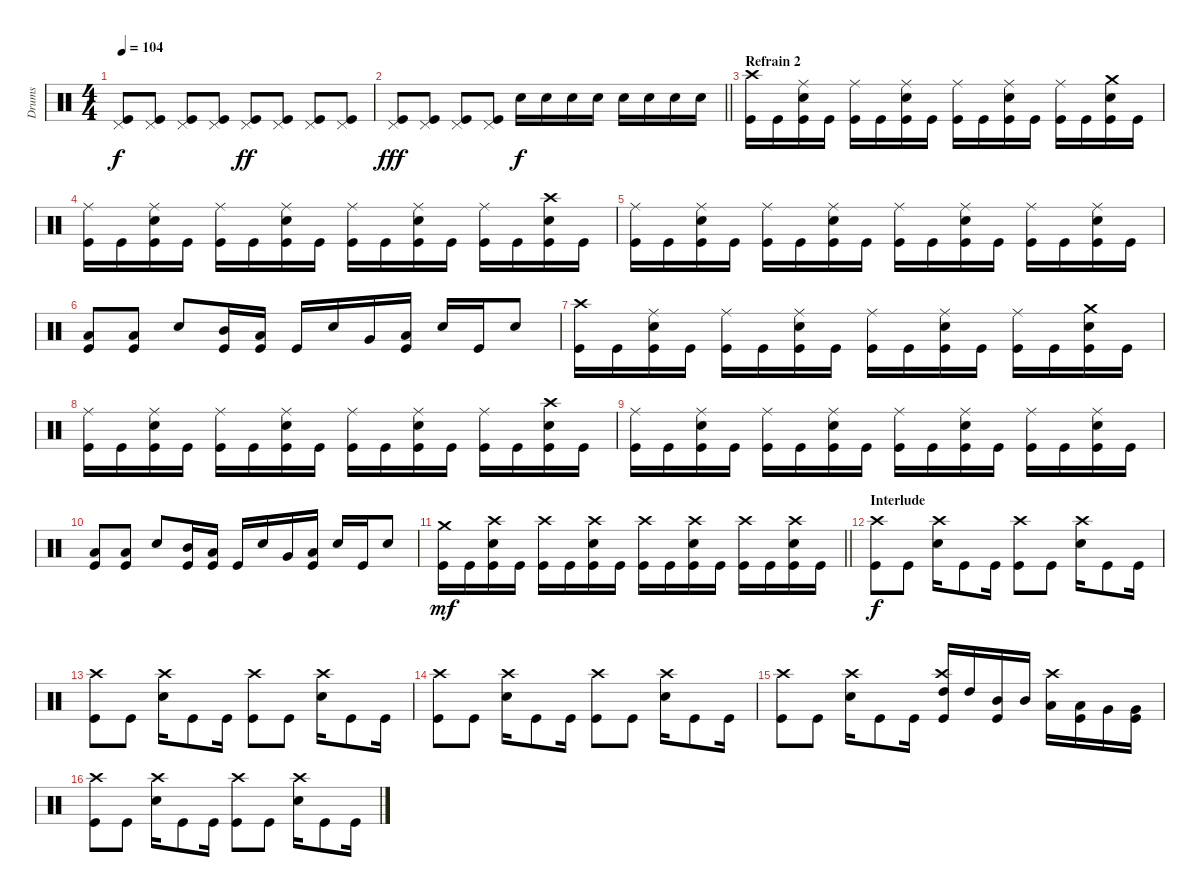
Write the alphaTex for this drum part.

\track ("Drums" "Drums") {instrument percussion}
\staff {score}
\articulation defaults
\ts (4 4)
\tempo 104
\clef neutral
\ks c
("Pedal Hi-Hat (hit)" "Kick (hit)").8{dy f} ("Pedal Hi-Hat (hit)" "Kick (hit)").8 ("Pedal Hi-Hat (hit)" "Kick (hit)").8 ("Pedal Hi-Hat (hit)" "Kick (hit)").8 ("Pedal Hi-Hat (hit)" "Kick (hit)").8{dy ff} ("Pedal Hi-Hat (hit)" "Kick (hit)").8 ("Pedal Hi-Hat (hit)" "Kick (hit)").8 ("Pedal Hi-Hat (hit)" "Kick (hit)").8 |
\barLineRight lightlight
("Pedal Hi-Hat (hit)" "Kick (hit)").8{dy fff} ("Pedal Hi-Hat (hit)" "Kick (hit)").8 ("Pedal Hi-Hat (hit)" "Kick (hit)").8 ("Pedal Hi-Hat (hit)" "Kick (hit)").8 "Electric Snare (hit)".16{dy f} "Electric Snare (hit)".16 "Electric Snare (hit)".16 "Electric Snare (hit)".16 "Electric Snare (hit)".16 "Electric Snare (hit)".16 "Electric Snare (hit)".16 "Electric Snare (hit)".16 |
\section ("" "Refrain 2")
("Crash high (hit)" "Kick (hit)").16 "Kick (hit)".16 ("Ride (middle)" "Electric Snare (hit)" "Kick (hit)").16 "Kick (hit)".16 ("Ride (middle)" "Kick (hit)").16 "Kick (hit)".16 ("Ride (middle)" "Electric Snare (hit)" "Kick (hit)").16 "Kick (hit)".16 ("Ride (middle)" "Kick (hit)").16 "Kick (hit)".16 ("Ride (middle)" "Electric Snare (hit)" "Kick (hit)").16 "Kick (hit)".16 ("Ride (middle)" "Kick (hit)").16 "Kick (hit)".16 ("Crash medium (hit)" "Electric Snare (hit)" "Kick (hit)").16 "Kick (hit)".16 |
("Ride (middle)" "Kick (hit)").16 "Kick (hit)".16 ("Ride (middle)" "Electric Snare (hit)" "Kick (hit)").16 "Kick (hit)".16 ("Ride (middle)" "Kick (hit)").16 "Kick (hit)".16 ("Ride (middle)" "Electric Snare (hit)" "Kick (hit)").16 "Kick (hit)".16 ("Ride (middle)" "Kick (hit)").16 "Kick (hit)".16 ("Ride (middle)" "Electric Snare (hit)" "Kick (hit)").16 "Kick (hit)".16 ("Ride (middle)" "Kick (hit)").16 "Kick (hit)".16 ("Crash high (hit)" "Electric Snare (hit)" "Kick (hit)").16 "Kick (hit)".16 |
("Ride (middle)" "Kick (hit)").16 "Kick (hit)".16 ("Ride (middle)" "Electric Snare (hit)" "Kick (hit)").16 "Kick (hit)".16 ("Ride (middle)" "Kick (hit)").16 "Kick (hit)".16 ("Ride (middle)" "Electric Snare (hit)" "Kick (hit)").16 "Kick (hit)".16 ("Ride (middle)" "Kick (hit)").16 "Kick (hit)".16 ("Ride (middle)" "Electric Snare (hit)" "Kick (hit)").16 "Kick (hit)".16 ("Ride (middle)" "Kick (hit)").16 "Kick (hit)".16 ("Ride (middle)" "Electric Snare (hit)" "Kick (hit)").16 "Kick (hit)".16 |
("Low Tom (hit)" "Kick (hit)").8 ("Low Tom (hit)" "Kick (hit)").8 "Electric Snare (hit)".8 ("Mid Tom (hit)" "Kick (hit)").16 ("Low Tom (hit)" "Kick (hit)").16 "Kick (hit)".16 "Electric Snare (hit)".16 "Very Low Tom (hit)".16 ("Low Floor Tom (hit)" "Kick (hit)").16 "Electric Snare (hit)".16 "Kick (hit)".16 "Electric Snare (hit)".8 |
("Crash high (hit)" "Kick (hit)").16 "Kick (hit)".16 ("Ride (middle)" "Electric Snare (hit)" "Kick (hit)").16 "Kick (hit)".16 ("Ride (middle)" "Kick (hit)").16 "Kick (hit)".16 ("Ride (middle)" "Electric Snare (hit)" "Kick (hit)").16 "Kick (hit)".16 ("Ride (middle)" "Kick (hit)").16 "Kick (hit)".16 ("Ride (middle)" "Electric Snare (hit)" "Kick (hit)").16 "Kick (hit)".16 ("Ride (middle)" "Kick (hit)").16 "Kick (hit)".16 ("Crash medium (hit)" "Electric Snare (hit)" "Kick (hit)").16 "Kick (hit)".16 |
("Ride (middle)" "Kick (hit)").16 "Kick (hit)".16 ("Ride (middle)" "Electric Snare (hit)" "Kick (hit)").16 "Kick (hit)".16 ("Ride (middle)" "Kick (hit)").16 "Kick (hit)".16 ("Ride (middle)" "Electric Snare (hit)" "Kick (hit)").16 "Kick (hit)".16 ("Ride (middle)" "Kick (hit)").16 "Kick (hit)".16 ("Ride (middle)" "Electric Snare (hit)" "Kick (hit)").16 "Kick (hit)".16 ("Ride (middle)" "Kick (hit)").16 "Kick (hit)".16 ("Crash high (hit)" "Electric Snare (hit)" "Kick (hit)").16 "Kick (hit)".16 |
("Ride (middle)" "Kick (hit)").16 "Kick (hit)".16 ("Ride (middle)" "Electric Snare (hit)" "Kick (hit)").16 "Kick (hit)".16 ("Ride (middle)" "Kick (hit)").16 "Kick (hit)".16 ("Ride (middle)" "Electric Snare (hit)" "Kick (hit)").16 "Kick (hit)".16 ("Ride (middle)" "Kick (hit)").16 "Kick (hit)".16 ("Ride (middle)" "Electric Snare (hit)" "Kick (hit)").16 "Kick (hit)".16 ("Ride (middle)" "Kick (hit)").16 "Kick (hit)".16 ("Ride (middle)" "Electric Snare (hit)" "Kick (hit)").16 "Kick (hit)".16 |
("Low Tom (hit)" "Kick (hit)").8 ("Low Tom (hit)" "Kick (hit)").8 "Electric Snare (hit)".8 ("Mid Tom (hit)" "Kick (hit)").16 ("Low Tom (hit)" "Kick (hit)").16 "Kick (hit)".16 "Electric Snare (hit)".16 "Very Low Tom (hit)".16 ("Low Floor Tom (hit)" "Kick (hit)").16 "Electric Snare (hit)".16 "Kick (hit)".16 "Electric Snare (hit)".8 |
\barLineRight lightlight
("Crash medium (hit)" "Kick (hit)").16{dy mf} "Kick (hit)".16 ("Crash high (hit)" "Electric Snare (hit)" "Kick (hit)").16 "Kick (hit)".16 ("Crash high (hit)" "Kick (hit)").16 "Kick (hit)".16 ("Crash high (hit)" "Electric Snare (hit)" "Kick (hit)").16 "Kick (hit)".16 ("Crash high (hit)" "Kick (hit)").16 "Kick (hit)".16 ("Crash high (hit)" "Electric Snare (hit)" "Kick (hit)").16 "Kick (hit)".16 ("Crash high (hit)" "Kick (hit)").16 "Kick (hit)".16 ("Crash high (hit)" "Electric Snare (hit)" "Kick (hit)").16 "Kick (hit)".16 |
\section ("" "Interlude")
("Crash high (hit)" "Kick (hit)").8{dy f} "Kick (hit)".8 ("Crash high (hit)" "Electric Snare (hit)").16 "Kick (hit)".8 "Kick (hit)".16 ("Crash high (hit)" "Kick (hit)").8 "Kick (hit)".8 ("Crash high (hit)" "Electric Snare (hit)").16 "Kick (hit)".8 "Kick (hit)".16 |
("Crash high (hit)" "Kick (hit)").8 "Kick (hit)".8 ("Crash high (hit)" "Electric Snare (hit)").16 "Kick (hit)".8 "Kick (hit)".16 ("Crash high (hit)" "Kick (hit)").8 "Kick (hit)".8 ("Crash high (hit)" "Electric Snare (hit)").16 "Kick (hit)".8 "Kick (hit)".16 |
("Crash high (hit)" "Kick (hit)").8 "Kick (hit)".8 ("Crash high (hit)" "Electric Snare (hit)").16 "Kick (hit)".8 "Kick (hit)".16 ("Crash high (hit)" "Kick (hit)").8 "Kick (hit)".8 ("Crash high (hit)" "Electric Snare (hit)").16 "Kick (hit)".8 "Kick (hit)".16 |
("Crash high (hit)" "Kick (hit)").8 "Kick (hit)".8 ("Crash high (hit)" "Electric Snare (hit)").16 "Kick (hit)".8 "Kick (hit)".16 ("Crash high (hit)" "High Tom (hit)" "Kick (hit)").16 "High Tom (hit)".16 ("Mid Tom (hit)" "Kick (hit)").16 "Mid Tom (hit)".16 ("Crash high (hit)" "Low Tom (hit)").16 ("Low Tom (hit)" "Kick (hit)").16 "Very Low Tom (hit)".16 ("Very Low Tom (hit)" "Kick (hit)").16 |
("Crash high (hit)" "Kick (hit)").8 "Kick (hit)".8 ("Crash high (hit)" "Electric Snare (hit)").16 "Kick (hit)".8 "Kick (hit)".16 ("Crash high (hit)" "Kick (hit)").8 "Kick (hit)".8 ("Crash high (hit)" "Electric Snare (hit)").16 "Kick (hit)".8 "Kick (hit)".16
